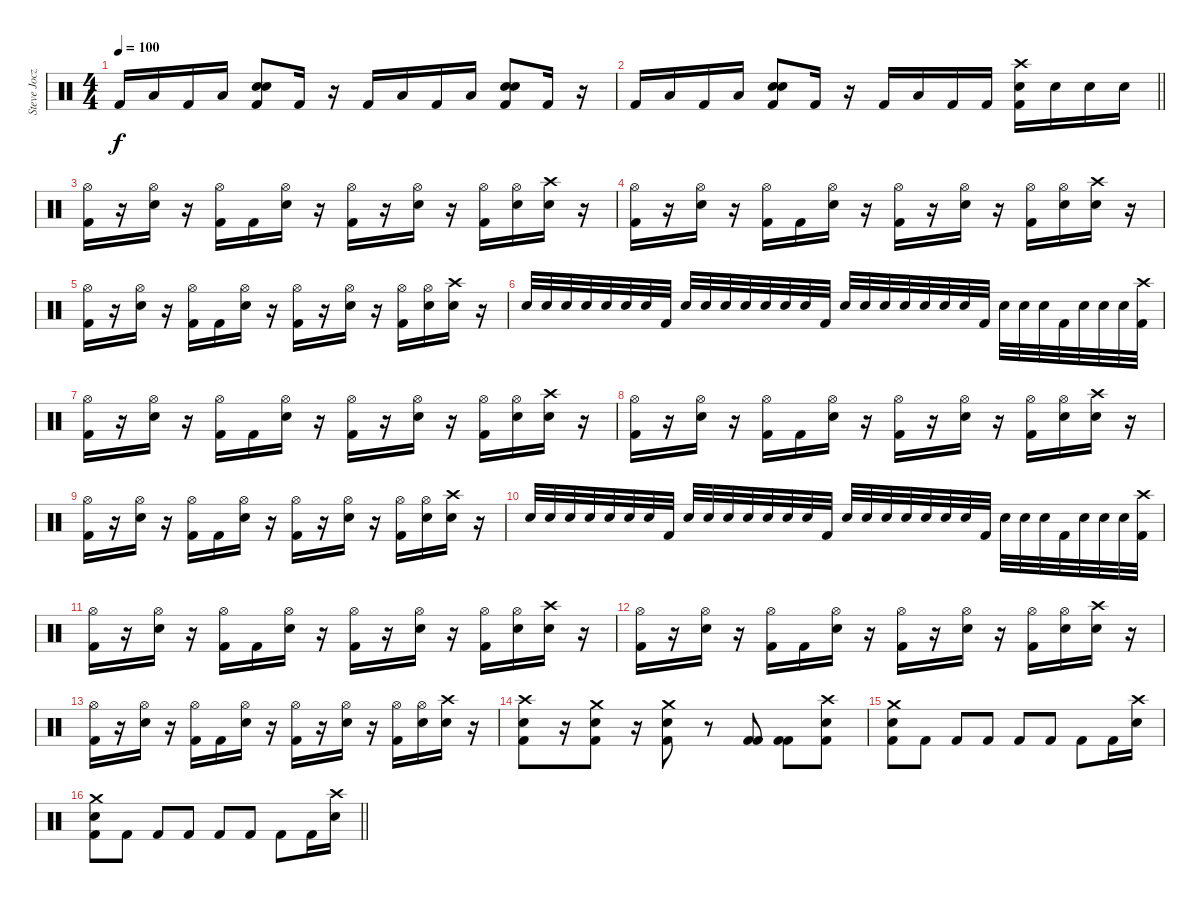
\track ("Steve Jocz" "Steve Jocz") {instrument percussion}
\staff {score}
\articulation defaults
\ts (4 4)
\tempo 100
\clef neutral
\ks c "Kick (hit) 2".16{dy f} "Low Floor Tom (hit)".16 "Kick (hit) 2".16 "Low Floor Tom (hit)".16
("Electric Snare (hit)" "Electric Snare (hit)" "Kick (hit) 2").8 "Kick (hit) 2".16 r.16 "Kick (hit) 2".16 "Low Floor Tom (hit)".16 "Kick (hit) 2".16 "Low Floor Tom (hit)".16 ("Electric Snare (hit)" "Electric Snare (hit)" "Kick (hit) 2").8 "Kick (hit) 2".16 r.16 |
\barLineRight lightlight "Kick (hit) 2".16 "Low Floor Tom (hit)".16 "Kick (hit) 2".16 "Low Floor Tom (hit)".16
("Electric Snare (hit)" "Electric Snare (hit)" "Kick (hit) 2").8 "Kick (hit) 2".16 r.16 "Kick (hit) 2".16 "Low Floor Tom (hit)".16 "Kick (hit) 2".16 "Kick (hit) 2".16 ("Crash high (hit)" "Electric Snare (hit)" "Kick (hit) 2").16 "Electric Snare (hit)".16 "Electric Snare (hit)".16 "Electric Snare (hit)".16 |
("Hi-Hat (open)" "Kick (hit) 2").16 r.16 ("Hi-Hat (open)" "Electric Snare (hit)").16 r.16 ("Hi-Hat (open)" "Kick (hit) 2").16 "Kick (hit) 2".16 ("Hi-Hat (open)" "Electric Snare (hit)").16 r.16 ("Hi-Hat (open)" "Kick (hit) 2").16 r.16 ("Hi-Hat (open)" "Electric Snare (hit)").16 r.16 ("Hi-Hat (open)" "Kick (hit) 2").16 ("Hi-Hat (open)" "Electric Snare (hit)").16 ("Crash high (hit)" "Electric Snare (hit)").16 r.16 |
("Hi-Hat (open)" "Kick (hit) 2").16 r.16 ("Hi-Hat (open)" "Electric Snare (hit)").16 r.16 ("Hi-Hat (open)" "Kick (hit) 2").16 "Kick (hit) 2".16 ("Hi-Hat (open)" "Electric Snare (hit)").16 r.16 ("Hi-Hat (open)" "Kick (hit) 2").16 r.16 ("Hi-Hat (open)" "Electric Snare (hit)").16 r.16 ("Hi-Hat (open)" "Kick (hit) 2").16 ("Hi-Hat (open)" "Electric Snare (hit)").16 ("Crash high (hit)" "Electric Snare (hit)").16 r.16 |
("Hi-Hat (open)" "Kick (hit) 2").16 r.16 ("Hi-Hat (open)" "Electric Snare (hit)").16 r.16 ("Hi-Hat (open)" "Kick (hit) 2").16 "Kick (hit) 2".16 ("Hi-Hat (open)" "Electric Snare (hit)").16 r.16 ("Hi-Hat (open)" "Kick (hit) 2").16 r.16 ("Hi-Hat (open)" "Electric Snare (hit)").16 r.16 ("Hi-Hat (open)" "Kick (hit) 2").16 ("Hi-Hat (open)" "Electric Snare (hit)").16 ("Crash high (hit)" "Electric Snare (hit)").16 r.16 |
"Electric Snare (hit)".32 "Electric Snare (hit)".32 "Electric Snare (hit)".32 "Electric Snare (hit)".32 "Electric Snare (hit)".32 "Electric Snare (hit)".32 "Electric Snare (hit)".32 "Kick (hit) 2".32 "Electric Snare (hit)".32 "Electric Snare (hit)".32 "Electric Snare (hit)".32 "Electric Snare (hit)".32 "Electric Snare (hit)".32 "Electric Snare (hit)".32 "Electric Snare (hit)".32 "Kick (hit) 2".32 "Electric Snare (hit)".32 "Electric Snare (hit)".32 "Electric Snare (hit)".32 "Electric Snare (hit)".32 "Electric Snare (hit)".32 "Electric Snare (hit)".32 "Electric Snare (hit)".32 "Kick (hit) 2".32 "Electric Snare (hit)".32 "Electric Snare (hit)".32 "Electric Snare (hit)".32 "Kick (hit) 2".32 "Electric Snare (hit)".32 "Electric Snare (hit)".32 "Electric Snare (hit)".32 ("Crash high (hit)" "Kick (hit) 2").32 |
("Hi-Hat (open)" "Kick (hit) 2").16 r.16 ("Hi-Hat (open)" "Electric Snare (hit)").16 r.16 ("Hi-Hat (open)" "Kick (hit) 2").16 "Kick (hit) 2".16 ("Hi-Hat (open)" "Electric Snare (hit)").16 r.16 ("Hi-Hat (open)" "Kick (hit) 2").16 r.16 ("Hi-Hat (open)" "Electric Snare (hit)").16 r.16 ("Hi-Hat (open)" "Kick (hit) 2").16 ("Hi-Hat (open)" "Electric Snare (hit)").16 ("Crash high (hit)" "Electric Snare (hit)").16 r.16 |
("Hi-Hat (open)" "Kick (hit) 2").16 r.16 ("Hi-Hat (open)" "Electric Snare (hit)").16 r.16 ("Hi-Hat (open)" "Kick (hit) 2").16 "Kick (hit) 2".16 ("Hi-Hat (open)" "Electric Snare (hit)").16 r.16 ("Hi-Hat (open)" "Kick (hit) 2").16 r.16 ("Hi-Hat (open)" "Electric Snare (hit)").16 r.16 ("Hi-Hat (open)" "Kick (hit) 2").16 ("Hi-Hat (open)" "Electric Snare (hit)").16 ("Crash high (hit)" "Electric Snare (hit)").16 r.16 |
("Hi-Hat (open)" "Kick (hit) 2").16 r.16 ("Hi-Hat (open)" "Electric Snare (hit)").16 r.16 ("Hi-Hat (open)" "Kick (hit) 2").16 "Kick (hit) 2".16 ("Hi-Hat (open)" "Electric Snare (hit)").16 r.16 ("Hi-Hat (open)" "Kick (hit) 2").16 r.16 ("Hi-Hat (open)" "Electric Snare (hit)").16 r.16 ("Hi-Hat (open)" "Kick (hit) 2").16 ("Hi-Hat (open)" "Electric Snare (hit)").16 ("Crash high (hit)" "Electric Snare (hit)").16 r.16 |
"Electric Snare (hit)".32 "Electric Snare (hit)".32 "Electric Snare (hit)".32 "Electric Snare (hit)".32 "Electric Snare (hit)".32 "Electric Snare (hit)".32 "Electric Snare (hit)".32 "Kick (hit) 2".32 "Electric Snare (hit)".32 "Electric Snare (hit)".32 "Electric Snare (hit)".32 "Electric Snare (hit)".32 "Electric Snare (hit)".32 "Electric Snare (hit)".32 "Electric Snare (hit)".32 "Kick (hit) 2".32 "Electric Snare (hit)".32 "Electric Snare (hit)".32 "Electric Snare (hit)".32 "Electric Snare (hit)".32 "Electric Snare (hit)".32 "Electric Snare (hit)".32 "Electric Snare (hit)".32 "Kick (hit) 2".32 "Electric Snare (hit)".32 "Electric Snare (hit)".32 "Electric Snare (hit)".32 "Kick (hit) 2".32 "Electric Snare (hit)".32 "Electric Snare (hit)".32 "Electric Snare (hit)".32 ("Crash high (hit)" "Kick (hit) 2").32 |
("Hi-Hat (open)" "Kick (hit) 2").16 r.16 ("Hi-Hat (open)" "Electric Snare (hit)").16 r.16 ("Hi-Hat (open)" "Kick (hit) 2").16 "Kick (hit) 2".16 ("Hi-Hat (open)" "Electric Snare (hit)").16 r.16 ("Hi-Hat (open)" "Kick (hit) 2").16 r.16 ("Hi-Hat (open)" "Electric Snare (hit)").16 r.16 ("Hi-Hat (open)" "Kick (hit) 2").16 ("Hi-Hat (open)" "Electric Snare (hit)").16 ("Crash high (hit)" "Electric Snare (hit)").16 r.16 |
("Hi-Hat (open)" "Kick (hit) 2").16 r.16 ("Hi-Hat (open)" "Electric Snare (hit)").16 r.16 ("Hi-Hat (open)" "Kick (hit) 2").16 "Kick (hit) 2".16 ("Hi-Hat (open)" "Electric Snare (hit)").16 r.16 ("Hi-Hat (open)" "Kick (hit) 2").16 r.16 ("Hi-Hat (open)" "Electric Snare (hit)").16 r.16 ("Hi-Hat (open)" "Kick (hit) 2").16 ("Hi-Hat (open)" "Electric Snare (hit)").16 ("Crash high (hit)" "Electric Snare (hit)").16 r.16 |
("Hi-Hat (open)" "Kick (hit) 2").16 r.16 ("Hi-Hat (open)" "Electric Snare (hit)").16 r.16 ("Hi-Hat (open)" "Kick (hit) 2").16 "Kick (hit) 2".16 ("Hi-Hat (open)" "Electric Snare (hit)").16 r.16 ("Hi-Hat (open)" "Kick (hit) 2").16 r.16 ("Hi-Hat (open)" "Electric Snare (hit)").16 r.16 ("Hi-Hat (open)" "Kick (hit) 2").16 ("Hi-Hat (open)" "Electric Snare (hit)").16 ("Crash high (hit)" "Electric Snare (hit)").16 r.16 |
("Crash high (hit)" "Electric Snare (hit)" "Kick (hit) 2").8 r.16 ("Crash medium (hit)" "Electric Snare (hit)" "Kick (hit) 2").8 r.16 ("Crash medium (hit)" "Electric Snare (hit)" "Kick (hit) 2").8 r.8 ("Kick (hit) 2" "Kick (hit) 2").8 ("Kick (hit) 2" "Kick (hit) 2").8 ("Crash high (hit)" "Electric Snare (hit)" "Kick (hit) 2").8 |
("Crash medium (hit)" "Electric Snare (hit)" "Kick (hit) 2").8 "Kick (hit) 2".8 "Kick (hit) 2".8 "Kick (hit) 2".8 "Kick (hit) 2".8 "Kick (hit) 2".8 "Kick (hit) 2".8 "Kick (hit) 2".16 ("Crash high (hit)" "Electric Snare (hit)").16 |
\barLineRight lightlight
("Crash medium (hit)" "Electric Snare (hit)" "Kick (hit) 2").8 "Kick (hit) 2".8 "Kick (hit) 2".8 "Kick (hit) 2".8 "Kick (hit) 2".8 "Kick (hit) 2".8 "Kick (hit) 2".8 "Kick (hit) 2".16 ("Crash high (hit)" "Electric Snare (hit)").16
